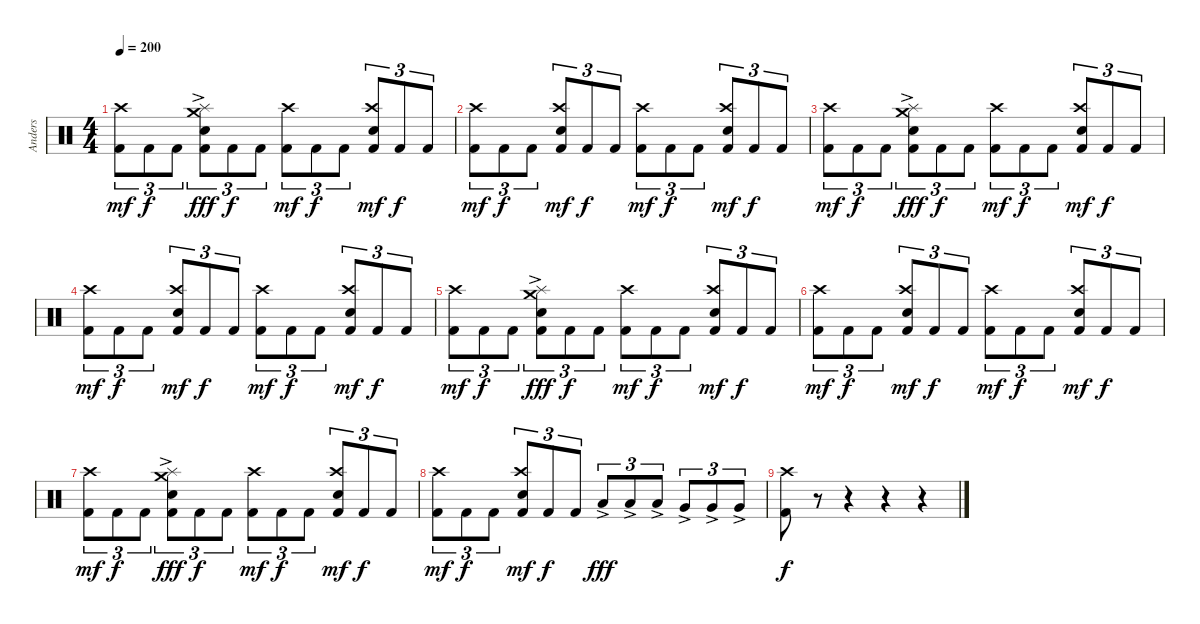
\track ("Anders" "Anders") {instrument percussion}
\staff {score}
\articulation defaults
\ts (4 4)
\tempo 200
\clef neutral
\ks c
("Kick (hit) 2" "Crash high (hit)").8{tu (3 2) dy mf} "Kick (hit) 2".8{tu (3 2) dy f} "Kick (hit) 2".8{tu (3 2)} ("Kick (hit) 2" "Electric Snare (hit)" "Splash (hit)" "Crash medium (hit)"{ac}).8{tu (3 2) dy fff} "Kick (hit) 2".8{tu (3 2) dy f} "Kick (hit) 2".8{tu (3 2)} ("Kick (hit) 2" "Crash high (hit)").8{tu (3 2) dy mf} "Kick (hit) 2".8{tu (3 2) dy f} "Kick (hit) 2".8{tu (3 2)} ("Kick (hit) 2" "Electric Snare (hit)" "Crash high (hit)").8{tu (3 2) dy mf} "Kick (hit) 2".8{tu (3 2) dy f} "Kick (hit) 2".8{tu (3 2)} |
("Kick (hit) 2" "Crash high (hit)").8{tu (3 2) dy mf} "Kick (hit) 2".8{tu (3 2) dy f} "Kick (hit) 2".8{tu (3 2)} ("Kick (hit) 2" "Electric Snare (hit)" "Crash high (hit)").8{tu (3 2) dy mf} "Kick (hit) 2".8{tu (3 2) dy f} "Kick (hit) 2".8{tu (3 2)} ("Kick (hit) 2" "Crash high (hit)").8{tu (3 2) dy mf} "Kick (hit) 2".8{tu (3 2) dy f} "Kick (hit) 2".8{tu (3 2)} ("Kick (hit) 2" "Electric Snare (hit)" "Crash high (hit)").8{tu (3 2) dy mf} "Kick (hit) 2".8{tu (3 2) dy f} "Kick (hit) 2".8{tu (3 2)} |
("Kick (hit) 2" "Crash high (hit)").8{tu (3 2) dy mf} "Kick (hit) 2".8{tu (3 2) dy f} "Kick (hit) 2".8{tu (3 2)} ("Kick (hit) 2" "Electric Snare (hit)" "Splash (hit)" "Crash medium (hit)"{ac}).8{tu (3 2) dy fff} "Kick (hit) 2".8{tu (3 2) dy f} "Kick (hit) 2".8{tu (3 2)} ("Kick (hit) 2" "Crash high (hit)").8{tu (3 2) dy mf} "Kick (hit) 2".8{tu (3 2) dy f} "Kick (hit) 2".8{tu (3 2)} ("Kick (hit) 2" "Electric Snare (hit)" "Crash high (hit)").8{tu (3 2) dy mf} "Kick (hit) 2".8{tu (3 2) dy f} "Kick (hit) 2".8{tu (3 2)} |
("Kick (hit) 2" "Crash high (hit)").8{tu (3 2) dy mf} "Kick (hit) 2".8{tu (3 2) dy f} "Kick (hit) 2".8{tu (3 2)} ("Kick (hit) 2" "Electric Snare (hit)" "Crash high (hit)").8{tu (3 2) dy mf} "Kick (hit) 2".8{tu (3 2) dy f} "Kick (hit) 2".8{tu (3 2)} ("Kick (hit) 2" "Crash high (hit)").8{tu (3 2) dy mf} "Kick (hit) 2".8{tu (3 2) dy f} "Kick (hit) 2".8{tu (3 2)} ("Kick (hit) 2" "Electric Snare (hit)" "Crash high (hit)").8{tu (3 2) dy mf} "Kick (hit) 2".8{tu (3 2) dy f} "Kick (hit) 2".8{tu (3 2)} |
("Kick (hit) 2" "Crash high (hit)").8{tu (3 2) dy mf} "Kick (hit) 2".8{tu (3 2) dy f} "Kick (hit) 2".8{tu (3 2)} ("Kick (hit) 2" "Electric Snare (hit)" "Splash (hit)" "Crash medium (hit)"{ac}).8{tu (3 2) dy fff} "Kick (hit) 2".8{tu (3 2) dy f} "Kick (hit) 2".8{tu (3 2)} ("Kick (hit) 2" "Crash high (hit)").8{tu (3 2) dy mf} "Kick (hit) 2".8{tu (3 2) dy f} "Kick (hit) 2".8{tu (3 2)} ("Kick (hit) 2" "Electric Snare (hit)" "Crash high (hit)").8{tu (3 2) dy mf} "Kick (hit) 2".8{tu (3 2) dy f} "Kick (hit) 2".8{tu (3 2)} |
("Kick (hit) 2" "Crash high (hit)").8{tu (3 2) dy mf} "Kick (hit) 2".8{tu (3 2) dy f} "Kick (hit) 2".8{tu (3 2)} ("Kick (hit) 2" "Electric Snare (hit)" "Crash high (hit)").8{tu (3 2) dy mf} "Kick (hit) 2".8{tu (3 2) dy f} "Kick (hit) 2".8{tu (3 2)} ("Kick (hit) 2" "Crash high (hit)").8{tu (3 2) dy mf} "Kick (hit) 2".8{tu (3 2) dy f} "Kick (hit) 2".8{tu (3 2)} ("Kick (hit) 2" "Electric Snare (hit)" "Crash high (hit)").8{tu (3 2) dy mf} "Kick (hit) 2".8{tu (3 2) dy f} "Kick (hit) 2".8{tu (3 2)} |
("Kick (hit) 2" "Crash high (hit)").8{tu (3 2) dy mf} "Kick (hit) 2".8{tu (3 2) dy f} "Kick (hit) 2".8{tu (3 2)} ("Kick (hit) 2" "Electric Snare (hit)" "Splash (hit)" "Crash medium (hit)"{ac}).8{tu (3 2) dy fff} "Kick (hit) 2".8{tu (3 2) dy f} "Kick (hit) 2".8{tu (3 2)} ("Kick (hit) 2" "Crash high (hit)").8{tu (3 2) dy mf} "Kick (hit) 2".8{tu (3 2) dy f} "Kick (hit) 2".8{tu (3 2)} ("Kick (hit) 2" "Electric Snare (hit)" "Crash high (hit)").8{tu (3 2) dy mf} "Kick (hit) 2".8{tu (3 2) dy f} "Kick (hit) 2".8{tu (3 2)} |
("Kick (hit) 2" "Crash high (hit)").8{tu (3 2) dy mf} "Kick (hit) 2".8{tu (3 2) dy f} "Kick (hit) 2".8{tu (3 2)} ("Kick (hit) 2" "Electric Snare (hit)" "Crash high (hit)").8{tu (3 2) dy mf} "Kick (hit) 2".8{tu (3 2) dy f} "Kick (hit) 2".8{tu (3 2)} "Low Tom (hit)"{ac}.8{tu (3 2) dy fff} "Low Tom (hit)"{ac}.8{tu (3 2)} "Low Tom (hit)"{ac}.8{tu (3 2)} "Very Low Tom (hit)"{ac}.8{tu (3 2)} "Very Low Tom (hit)"{ac}.8{tu (3 2)} "Very Low Tom (hit)"{ac}.8{tu (3 2)} |
("Kick (hit) 2" "Crash high (hit)").8{dy f} r.8{volume 0} r.4 r.4 r.4
